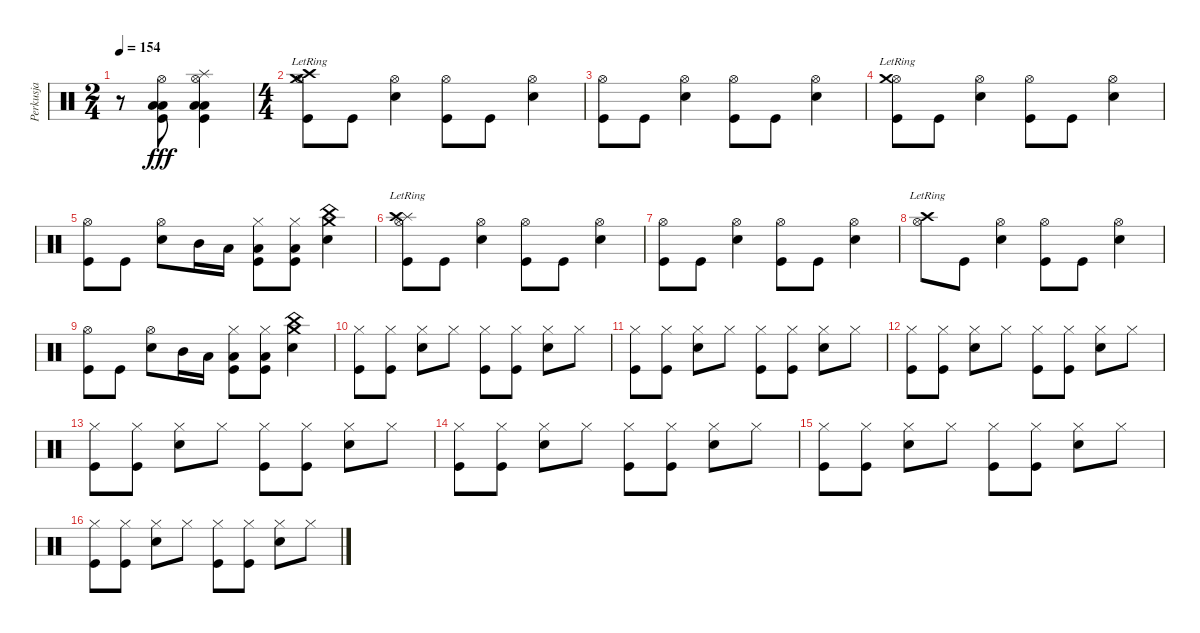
\track ("Perkusja" "Perkusja") {instrument percussion}
\staff {score}
\articulation defaults
\ts (2 4)
\tempo 154
\clef neutral
\ks c
r.8{dy fff} ("Hi-Hat (open)" "Low Floor Tom (hit)" "Low Tom (hit)" "Kick (hit)").8 ("Hi-Hat (open)" "Low Floor Tom (hit)" "Low Tom (hit)" "Kick (hit)" "Splash (hit)").4 |
\ts (4 4)
("Crash high (hit)"{lr} "Hi-Hat (open)" "Crash medium (hit)"{lr} "Kick (hit)").8 "Kick (hit)".8 ("Hi-Hat (open)" "Snare (hit) 2").4 ("Hi-Hat (open)" "Kick (hit)").8 "Kick (hit)".8 ("Hi-Hat (open)" "Snare (hit) 2").4 |
("Hi-Hat (open)" "Kick (hit)").8 "Kick (hit)".8 ("Hi-Hat (open)" "Snare (hit) 2").4 ("Hi-Hat (open)" "Kick (hit)").8 "Kick (hit)".8 ("Hi-Hat (open)" "Snare (hit) 2").4 |
("Hi-Hat (open)" "Crash medium (hit)"{lr} "Kick (hit)").8 "Kick (hit)".8 ("Hi-Hat (open)" "Snare (hit) 2").4 ("Hi-Hat (open)" "Kick (hit)").8 "Kick (hit)".8 ("Hi-Hat (open)" "Snare (hit) 2").4 |
("Hi-Hat (open)" "Kick (hit)").8 "Kick (hit)".8 ("Hi-Hat (open)" "Snare (hit) 2").8 "Mid Tom (hit)".16 "Low Tom (hit)".16 ("Hi-Hat (closed)" "Low Floor Tom (hit)" "Kick (hit)").8 ("Hi-Hat (closed)" "Low Floor Tom (hit)" "Kick (hit)").8 ("Crash medium (hit)" "China (hit)" "Snare (hit) 2").4 |
("Splash (hit)" "Hi-Hat (open)" "Crash high (hit)"{lr} "Kick (hit)").8 "Kick (hit)".8 ("Hi-Hat (open)" "Snare (hit) 2").4 ("Hi-Hat (open)" "Kick (hit)").8 "Kick (hit)".8 ("Hi-Hat (open)" "Snare (hit) 2").4 |
("Hi-Hat (open)" "Kick (hit)").8 "Kick (hit)".8 ("Hi-Hat (open)" "Snare (hit) 2").4 ("Hi-Hat (open)" "Kick (hit)").8 "Kick (hit)".8 ("Hi-Hat (open)" "Snare (hit) 2").4 |
("Crash high (hit)"{lr} "Hi-Hat (open)").8 "Kick (hit)".8 ("Hi-Hat (open)" "Snare (hit) 2").4 ("Hi-Hat (open)" "Kick (hit)").8 "Kick (hit)".8 ("Hi-Hat (open)" "Snare (hit) 2").4 |
("Hi-Hat (open)" "Kick (hit)").8 "Kick (hit)".8 ("Hi-Hat (open)" "Snare (hit) 2").8 "Mid Tom (hit)".16 "Low Tom (hit)".16 ("Hi-Hat (closed)" "Low Floor Tom (hit)" "Kick (hit)").8 ("Hi-Hat (closed)" "Low Floor Tom (hit)" "Kick (hit)").8 ("Crash medium (hit)" "China (hit)" "Snare (hit) 2").4 |
("Hi-Hat (closed)" "Kick (hit)").8 ("Hi-Hat (closed)" "Kick (hit)").8 ("Hi-Hat (closed)" "Snare (hit) 2").8 "Hi-Hat (closed)".8 ("Hi-Hat (closed)" "Kick (hit)").8 ("Hi-Hat (closed)" "Kick (hit)").8 ("Hi-Hat (closed)" "Snare (hit) 2").8 "Hi-Hat (closed)".8 |
("Hi-Hat (closed)" "Kick (hit)").8 ("Hi-Hat (closed)" "Kick (hit)").8 ("Hi-Hat (closed)" "Snare (hit) 2").8 "Hi-Hat (closed)".8 ("Hi-Hat (closed)" "Kick (hit)").8 ("Hi-Hat (closed)" "Kick (hit)").8 ("Hi-Hat (closed)" "Snare (hit) 2").8 "Hi-Hat (closed)".8 |
("Hi-Hat (closed)" "Kick (hit)").8 ("Hi-Hat (closed)" "Kick (hit)").8 ("Hi-Hat (closed)" "Snare (hit) 2").8 "Hi-Hat (closed)".8 ("Hi-Hat (closed)" "Kick (hit)").8 ("Hi-Hat (closed)" "Kick (hit)").8 ("Hi-Hat (closed)" "Snare (hit) 2").8 "Hi-Hat (closed)".8 |
("Hi-Hat (closed)" "Kick (hit)").8 ("Hi-Hat (closed)" "Kick (hit)").8 ("Hi-Hat (closed)" "Snare (hit) 2").8 "Hi-Hat (closed)".8 ("Hi-Hat (closed)" "Kick (hit)").8 ("Hi-Hat (closed)" "Kick (hit)").8 ("Hi-Hat (closed)" "Snare (hit) 2").8 "Hi-Hat (closed)".8 |
("Hi-Hat (closed)" "Kick (hit)").8 ("Hi-Hat (closed)" "Kick (hit)").8 ("Hi-Hat (closed)" "Snare (hit) 2").8 "Hi-Hat (closed)".8 ("Hi-Hat (closed)" "Kick (hit)").8 ("Hi-Hat (closed)" "Kick (hit)").8 ("Hi-Hat (closed)" "Snare (hit) 2").8 "Hi-Hat (closed)".8 |
("Hi-Hat (closed)" "Kick (hit)").8 ("Hi-Hat (closed)" "Kick (hit)").8 ("Hi-Hat (closed)" "Snare (hit) 2").8 "Hi-Hat (closed)".8 ("Hi-Hat (closed)" "Kick (hit)").8 ("Hi-Hat (closed)" "Kick (hit)").8 ("Hi-Hat (closed)" "Snare (hit) 2").8 "Hi-Hat (closed)".8 |
("Hi-Hat (closed)" "Kick (hit)").8 ("Hi-Hat (closed)" "Kick (hit)").8 ("Hi-Hat (closed)" "Snare (hit) 2").8 "Hi-Hat (closed)".8 ("Hi-Hat (closed)" "Kick (hit)").8 ("Hi-Hat (closed)" "Kick (hit)").8 ("Hi-Hat (closed)" "Snare (hit) 2").8 "Hi-Hat (closed)".8
